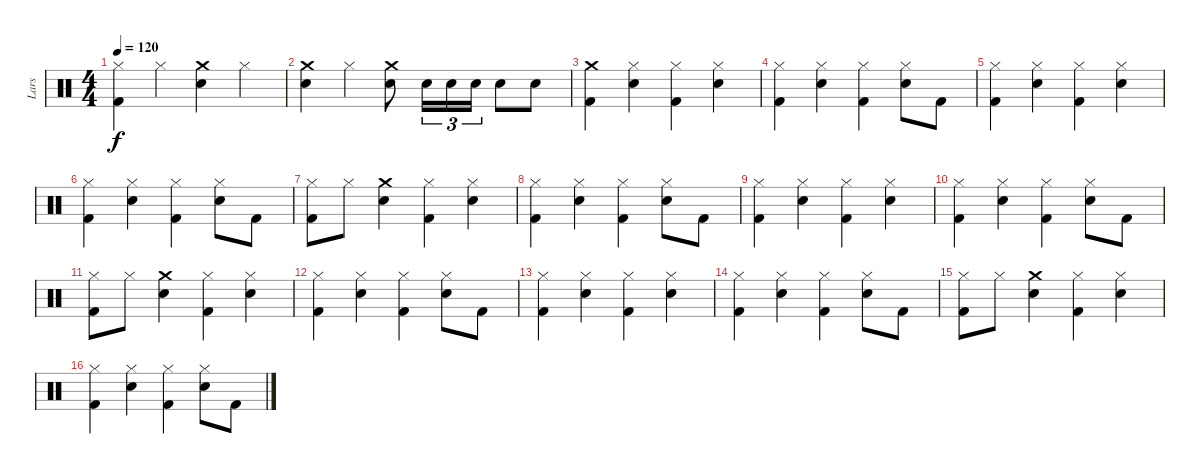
\track ("Lars" "Lars") {instrument percussion}
\staff {score}
\articulation defaults
\ts (4 4)
\tempo 120
\clef neutral
\ks c
("Hi-Hat (closed)" "Kick (hit) 2").4{dy f} "Hi-Hat (closed)".4 ("Crash medium (hit)" "Snare (hit) 2").4 "Hi-Hat (closed)".4 |
("Crash medium (hit)" "Snare (hit) 2").4 "Hi-Hat (closed)".4 ("Crash medium (hit)" "Snare (hit) 2").8 "Snare (hit) 2".16{tu (3 2)} "Snare (hit) 2".16{tu (3 2)} "Snare (hit) 2".16{tu (3 2)} "Snare (hit) 2".8 "Snare (hit) 2".8 |
("Kick (hit) 2" "Crash medium (hit)").4 ("Hi-Hat (closed)" "Snare (hit) 2").4 ("Kick (hit) 2" "Hi-Hat (closed)").4 ("Hi-Hat (closed)" "Snare (hit) 2").4 |
("Hi-Hat (closed)" "Kick (hit) 2").4 ("Hi-Hat (closed)" "Snare (hit) 2").4 ("Hi-Hat (closed)" "Kick (hit) 2").4 ("Snare (hit) 2" "Hi-Hat (closed)").8 "Kick (hit) 2".8 |
("Kick (hit) 2" "Hi-Hat (closed)").4 ("Hi-Hat (closed)" "Snare (hit) 2").4 ("Kick (hit) 2" "Hi-Hat (closed)").4 ("Snare (hit) 2" "Hi-Hat (closed)").4 |
("Kick (hit) 2" "Hi-Hat (closed)").4 ("Hi-Hat (closed)" "Snare (hit) 2").4 ("Kick (hit) 2" "Hi-Hat (closed)").4 ("Hi-Hat (closed)" "Snare (hit) 2").8 "Kick (hit) 2".8 |
("Kick (hit) 2" "Hi-Hat (closed)").8 "Hi-Hat (closed)".8 ("Crash medium (hit)" "Snare (hit) 2").4 ("Hi-Hat (closed)" "Kick (hit) 2").4 ("Snare (hit) 2" "Hi-Hat (closed)").4 |
("Hi-Hat (closed)" "Kick (hit) 2").4 ("Snare (hit) 2" "Hi-Hat (closed)").4 ("Hi-Hat (closed)" "Kick (hit) 2").4 ("Snare (hit) 2" "Hi-Hat (closed)").8 "Kick (hit) 2".8 |
("Hi-Hat (closed)" "Kick (hit) 2").4 ("Snare (hit) 2" "Hi-Hat (closed)").4 ("Hi-Hat (closed)" "Kick (hit) 2").4 ("Snare (hit) 2" "Hi-Hat (closed)").4 |
("Hi-Hat (closed)" "Kick (hit) 2").4 ("Hi-Hat (closed)" "Snare (hit) 2").4 ("Hi-Hat (closed)" "Kick (hit) 2").4 ("Snare (hit) 2" "Hi-Hat (closed)").8 "Kick (hit) 2".8 |
("Kick (hit) 2" "Hi-Hat (closed)").8 "Hi-Hat (closed)".8 ("Crash medium (hit)" "Snare (hit) 2").4 ("Hi-Hat (closed)" "Kick (hit) 2").4 ("Hi-Hat (closed)" "Snare (hit) 2").4 |
("Hi-Hat (closed)" "Kick (hit) 2").4 ("Snare (hit) 2" "Hi-Hat (closed)").4 ("Hi-Hat (closed)" "Kick (hit) 2").4 ("Hi-Hat (closed)" "Snare (hit) 2").8 "Kick (hit) 2".8 |
("Kick (hit) 2" "Hi-Hat (closed)").4 ("Hi-Hat (closed)" "Snare (hit) 2").4 ("Hi-Hat (closed)" "Kick (hit) 2").4 ("Hi-Hat (closed)" "Snare (hit) 2").4 |
("Hi-Hat (closed)" "Kick (hit) 2").4 ("Hi-Hat (closed)" "Snare (hit) 2").4 ("Kick (hit) 2" "Hi-Hat (closed)").4 ("Hi-Hat (closed)" "Snare (hit) 2").8 "Kick (hit) 2".8 |
("Kick (hit) 2" "Hi-Hat (closed)").8 "Hi-Hat (closed)".8 ("Crash medium (hit)" "Snare (hit) 2").4 ("Hi-Hat (closed)" "Kick (hit) 2").4 ("Hi-Hat (closed)" "Snare (hit) 2").4 |
("Hi-Hat (closed)" "Kick (hit) 2").4 ("Snare (hit) 2" "Hi-Hat (closed)").4 ("Hi-Hat (closed)" "Kick (hit) 2").4 ("Hi-Hat (closed)" "Snare (hit) 2").8 "Kick (hit) 2".8
